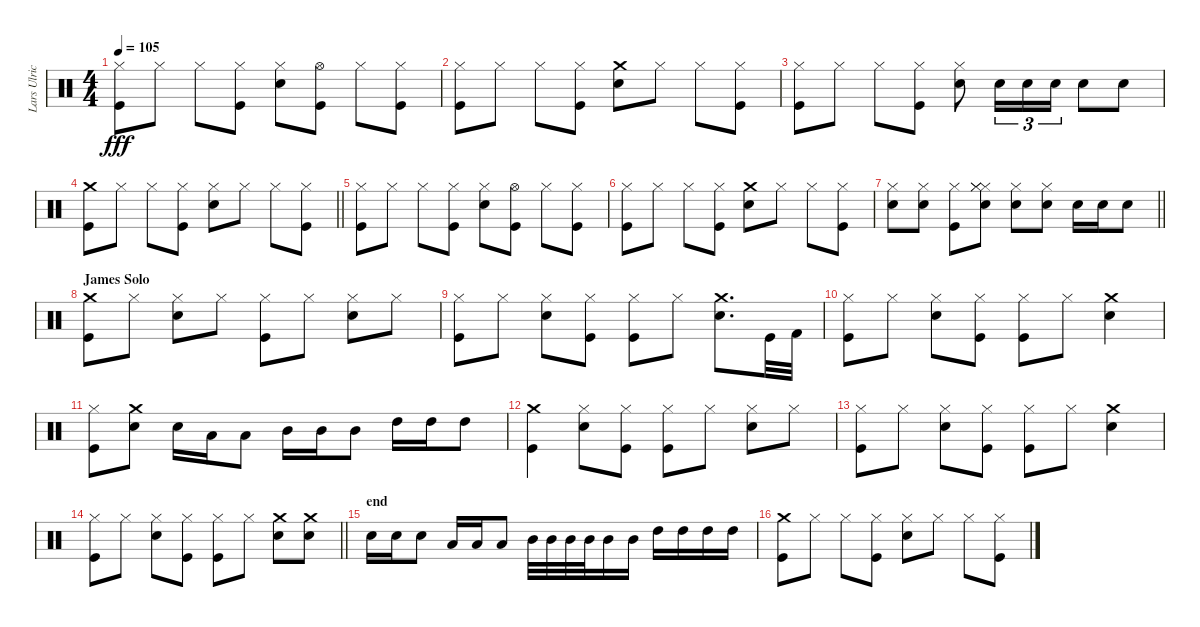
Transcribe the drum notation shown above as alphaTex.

\track ("Lars Ulrich" "Lars Ulric") {instrument percussion}
\staff {score}
\articulation defaults
\ts (4 4)
\tempo 105
\clef neutral
\ks c
("Hi-Hat (closed)" "Kick (hit)").8{dy fff} "Hi-Hat (closed)".8 "Hi-Hat (closed)".8 ("Kick (hit)" "Hi-Hat (closed)").8 ("Snare (hit) 2" "Hi-Hat (closed)").8 ("Kick (hit)" "Hi-Hat (open)").8 "Hi-Hat (closed)".8 ("Kick (hit)" "Hi-Hat (closed)").8 |
("Hi-Hat (closed)" "Kick (hit)").8 "Hi-Hat (closed)".8 "Hi-Hat (closed)".8 ("Kick (hit)" "Hi-Hat (closed)").8 ("Snare (hit) 2" "Crash medium (hit)").8 "Hi-Hat (closed)".8 "Hi-Hat (closed)".8 ("Kick (hit)" "Hi-Hat (closed)").8 |
("Kick (hit)" "Hi-Hat (closed)").8 "Hi-Hat (closed)".8 "Hi-Hat (closed)".8 ("Kick (hit)" "Hi-Hat (closed)").8 ("Snare (hit) 2" "Hi-Hat (closed)").8 "Snare (hit) 2".16{tu (3 2)} "Snare (hit) 2".16{tu (3 2)} "Snare (hit) 2".16{tu (3 2)} "Snare (hit) 2".8 "Snare (hit) 2".8 |
\barLineRight lightlight
("Kick (hit)" "Crash medium (hit)").8 "Hi-Hat (closed)".8 "Hi-Hat (closed)".8 ("Kick (hit)" "Hi-Hat (closed)").8 ("Snare (hit) 2" "Hi-Hat (closed)").8 "Hi-Hat (closed)".8 "Hi-Hat (closed)".8 ("Hi-Hat (closed)" "Kick (hit)").8 |
("Hi-Hat (closed)" "Kick (hit)").8 "Hi-Hat (closed)".8 "Hi-Hat (closed)".8 ("Kick (hit)" "Hi-Hat (closed)").8 ("Snare (hit) 2" "Hi-Hat (closed)").8 ("Kick (hit)" "Hi-Hat (open)").8 "Hi-Hat (closed)".8 ("Kick (hit)" "Hi-Hat (closed)").8 |
("Hi-Hat (closed)" "Kick (hit)").8 "Hi-Hat (closed)".8 "Hi-Hat (closed)".8 ("Kick (hit)" "Hi-Hat (closed)").8 ("Snare (hit) 2" "Crash medium (hit)").8 "Hi-Hat (closed)".8 "Hi-Hat (closed)".8 ("Kick (hit)" "Hi-Hat (closed)").8 |
\barLineRight lightlight
("Snare (hit) 2" "Hi-Hat (closed)").8 ("Snare (hit) 2" "Hi-Hat (closed)").8 ("Hi-Hat (closed)" "Kick (hit)").8 ("Hi-Hat (closed)" "Snare (hit) 2" "Hi-Hat (closed)" "Hi-Hat (closed)").8 ("Snare (hit) 2" "Hi-Hat (closed)").8 ("Snare (hit) 2" "Hi-Hat (closed)").8 "Snare (hit) 2".16 "Snare (hit) 2".16 "Snare (hit) 2".8 |
\section ("" "James Solo")
("Kick (hit)" "Crash medium (hit)").8 "Hi-Hat (closed)".8 ("Snare (hit) 2" "Hi-Hat (closed)").8 "Hi-Hat (closed)".8 ("Kick (hit)" "Hi-Hat (closed)").8 "Hi-Hat (closed)".8 ("Snare (hit) 2" "Hi-Hat (closed)").8 "Hi-Hat (closed)".8 |
("Hi-Hat (closed)" "Kick (hit)").8 "Hi-Hat (closed)".8 ("Snare (hit) 2" "Hi-Hat (closed)").8 ("Kick (hit)" "Hi-Hat (closed)").8 ("Hi-Hat (closed)" "Kick (hit)").8 "Hi-Hat (closed)".8 ("Snare (hit) 2" "Crash medium (hit)").8{d} "Kick (hit)".32 "Kick (hit) 2".32 |
("Hi-Hat (closed)" "Kick (hit)").8 "Hi-Hat (closed)".8 ("Snare (hit) 2" "Hi-Hat (closed)").8 ("Kick (hit)" "Hi-Hat (closed)").8 ("Kick (hit)" "Hi-Hat (closed)").8 "Hi-Hat (closed)".8 ("Snare (hit) 2" "Crash medium (hit)").4 |
("Kick (hit)" "Hi-Hat (closed)").8 ("Crash medium (hit)" "Snare (hit) 2").8 "Snare (hit) 2".16 "Low Tom (hit)".16 "Low Tom (hit)".8 "Mid Tom (hit)".16 "Mid Tom (hit)".16 "Mid Tom (hit)".8 "High Tom (hit)".16 "High Tom (hit)".16 "High Tom (hit)".8 |
("Kick (hit)" "Crash medium (hit)").4 ("Snare (hit) 2" "Hi-Hat (closed)").8 ("Hi-Hat (closed)" "Kick (hit)").8 ("Kick (hit)" "Hi-Hat (closed)").8 "Hi-Hat (closed)".8 ("Snare (hit) 2" "Hi-Hat (closed)").8 "Hi-Hat (closed)".8 |
("Kick (hit)" "Hi-Hat (closed)").8 "Hi-Hat (closed)".8 ("Hi-Hat (closed)" "Snare (hit) 2").8 ("Kick (hit)" "Hi-Hat (closed)").8 ("Hi-Hat (closed)" "Kick (hit)").8 "Hi-Hat (closed)".8 ("Crash medium (hit)" "Snare (hit) 2").4 |
\barLineRight lightlight
("Hi-Hat (closed)" "Kick (hit)").8 "Hi-Hat (closed)".8 ("Hi-Hat (closed)" "Snare (hit) 2").8 ("Hi-Hat (closed)" "Kick (hit)").8 ("Kick (hit)" "Hi-Hat (closed)").8 "Hi-Hat (closed)".8 ("Snare (hit) 2" "Crash medium (hit)").8 ("Snare (hit) 2" "Crash medium (hit)").8 |
\section ("" "end")
"Snare (hit) 2".16 "Snare (hit) 2".16 "Snare (hit) 2".8 "Low Tom (hit)".16 "Low Tom (hit)".16 "Low Tom (hit)".8 "Mid Tom (hit)".32 "Mid Tom (hit)".32 "Mid Tom (hit)".32 "Mid Tom (hit)".32 "Mid Tom (hit)".16 "Mid Tom (hit)".16 "High Tom (hit)".16 "High Tom (hit)".16 "High Tom (hit)".16 "High Tom (hit)".16 |
("Crash medium (hit)" "Kick (hit)").8 "Hi-Hat (closed)".8 "Hi-Hat (closed)".8 ("Kick (hit)" "Hi-Hat (closed)").8 ("Snare (hit) 2" "Hi-Hat (closed)").8 "Hi-Hat (closed)".8 "Hi-Hat (closed)".8 ("Kick (hit)" "Hi-Hat (closed)").8
